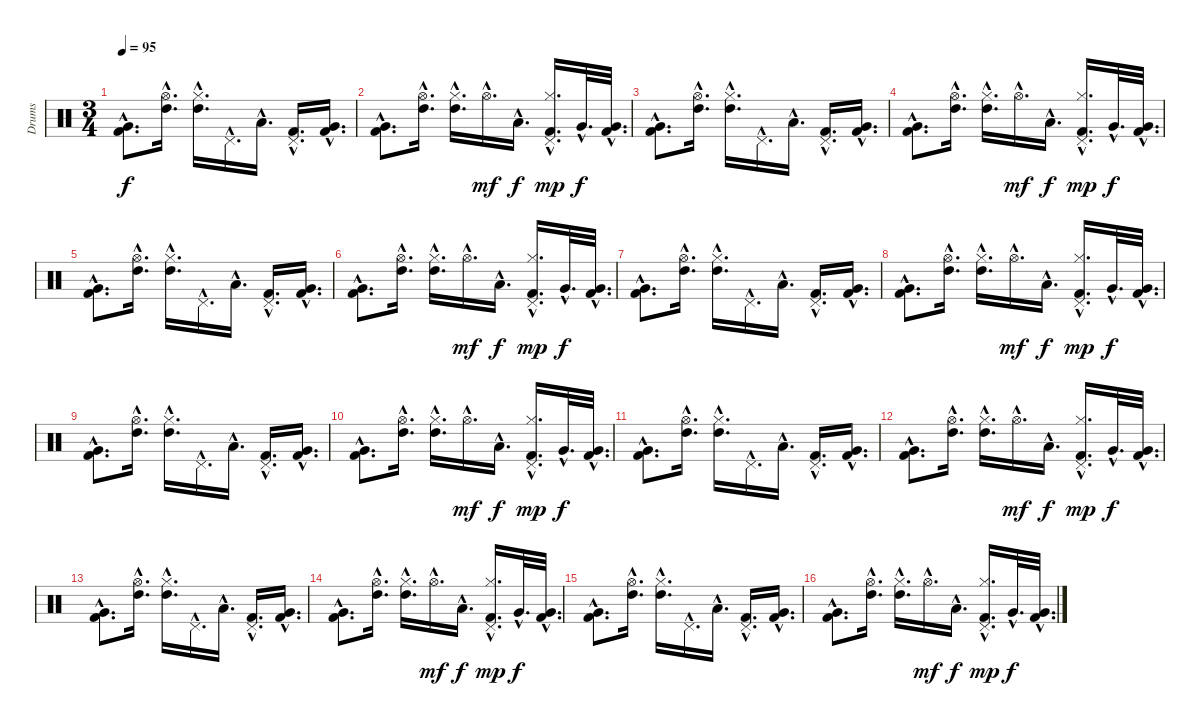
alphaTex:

\track ("Drums" "Drums") {instrument percussion}
\staff {score}
\articulation defaults
\ts (3 4)
\tempo 95
\clef neutral
\ks c
("Kick (hit) 2"{hac} "Very Low Tom (hit)"{hac}).8{d dy f} ("High Tom (hit)"{hac} "Hi-Hat (open)"{hac}).16{d} ("High Tom (hit)"{hac} "Hi-Hat (closed)"{hac}).16{d} "Pedal Hi-Hat (hit)"{hac}.16{d} "Low Tom (hit)"{hac}.16{d} ("Kick (hit) 2"{hac} "Pedal Hi-Hat (hit)"{hac}).16{d} ("Kick (hit) 2"{hac} "Very Low Tom (hit)"{hac}).16{d} |
("Kick (hit) 2"{hac} "Very Low Tom (hit)"{hac}).8{d} ("High Tom (hit)"{hac} "Hi-Hat (open)"{hac}).16{d} ("High Tom (hit)"{hac} "Hi-Hat (closed)"{hac}).16{d} "Hi-Hat (open)"{hac}.16{d dy mf} "Low Tom (hit)"{hac}.16{d dy f} ("Kick (hit) 2"{hac} "Pedal Hi-Hat (hit)"{hac} "Hi-Hat (closed)"{hac}).16{d dy mp} "Very Low Tom (hit)"{hac}.32{d dy f} ("Kick (hit) 2"{hac} "Very Low Tom (hit)"{hac}).32{d} |
("Kick (hit) 2"{hac} "Very Low Tom (hit)"{hac}).8{d} ("High Tom (hit)"{hac} "Hi-Hat (open)"{hac}).16{d} ("High Tom (hit)"{hac} "Hi-Hat (closed)"{hac}).16{d} "Pedal Hi-Hat (hit)"{hac}.16{d} "Low Tom (hit)"{hac}.16{d} ("Kick (hit) 2"{hac} "Pedal Hi-Hat (hit)"{hac}).16{d} ("Kick (hit) 2"{hac} "Very Low Tom (hit)"{hac}).16{d} |
("Kick (hit) 2"{hac} "Very Low Tom (hit)"{hac}).8{d} ("High Tom (hit)"{hac} "Hi-Hat (open)"{hac}).16{d} ("High Tom (hit)"{hac} "Hi-Hat (closed)"{hac}).16{d} "Hi-Hat (open)"{hac}.16{d dy mf} "Low Tom (hit)"{hac}.16{d dy f} ("Kick (hit) 2"{hac} "Pedal Hi-Hat (hit)"{hac} "Hi-Hat (closed)"{hac}).16{d dy mp} "Very Low Tom (hit)"{hac}.32{d dy f} ("Kick (hit) 2"{hac} "Very Low Tom (hit)"{hac}).32{d} |
("Kick (hit) 2"{hac} "Very Low Tom (hit)"{hac}).8{d} ("High Tom (hit)"{hac} "Hi-Hat (open)"{hac}).16{d} ("High Tom (hit)"{hac} "Hi-Hat (closed)"{hac}).16{d} "Pedal Hi-Hat (hit)"{hac}.16{d} "Low Tom (hit)"{hac}.16{d} ("Kick (hit) 2"{hac} "Pedal Hi-Hat (hit)"{hac}).16{d} ("Kick (hit) 2"{hac} "Very Low Tom (hit)"{hac}).16{d} |
("Kick (hit) 2"{hac} "Very Low Tom (hit)"{hac}).8{d} ("High Tom (hit)"{hac} "Hi-Hat (open)"{hac}).16{d} ("High Tom (hit)"{hac} "Hi-Hat (closed)"{hac}).16{d} "Hi-Hat (open)"{hac}.16{d dy mf} "Low Tom (hit)"{hac}.16{d dy f} ("Kick (hit) 2"{hac} "Pedal Hi-Hat (hit)"{hac} "Hi-Hat (closed)"{hac}).16{d dy mp} "Very Low Tom (hit)"{hac}.32{d dy f} ("Kick (hit) 2"{hac} "Very Low Tom (hit)"{hac}).32{d} |
("Kick (hit) 2"{hac} "Very Low Tom (hit)"{hac}).8{d} ("High Tom (hit)"{hac} "Hi-Hat (open)"{hac}).16{d} ("High Tom (hit)"{hac} "Hi-Hat (closed)"{hac}).16{d} "Pedal Hi-Hat (hit)"{hac}.16{d} "Low Tom (hit)"{hac}.16{d} ("Kick (hit) 2"{hac} "Pedal Hi-Hat (hit)"{hac}).16{d} ("Kick (hit) 2"{hac} "Very Low Tom (hit)"{hac}).16{d} |
("Kick (hit) 2"{hac} "Very Low Tom (hit)"{hac}).8{d} ("High Tom (hit)"{hac} "Hi-Hat (open)"{hac}).16{d} ("High Tom (hit)"{hac} "Hi-Hat (closed)"{hac}).16{d} "Hi-Hat (open)"{hac}.16{d dy mf} "Low Tom (hit)"{hac}.16{d dy f} ("Kick (hit) 2"{hac} "Pedal Hi-Hat (hit)"{hac} "Hi-Hat (closed)"{hac}).16{d dy mp} "Very Low Tom (hit)"{hac}.32{d dy f} ("Kick (hit) 2"{hac} "Very Low Tom (hit)"{hac}).32{d} |
("Kick (hit) 2"{hac} "Very Low Tom (hit)"{hac}).8{d} ("High Tom (hit)"{hac} "Hi-Hat (open)"{hac}).16{d} ("High Tom (hit)"{hac} "Hi-Hat (closed)"{hac}).16{d} "Pedal Hi-Hat (hit)"{hac}.16{d} "Low Tom (hit)"{hac}.16{d} ("Kick (hit) 2"{hac} "Pedal Hi-Hat (hit)"{hac}).16{d} ("Kick (hit) 2"{hac} "Very Low Tom (hit)"{hac}).16{d} |
("Kick (hit) 2"{hac} "Very Low Tom (hit)"{hac}).8{d} ("High Tom (hit)"{hac} "Hi-Hat (open)"{hac}).16{d} ("High Tom (hit)"{hac} "Hi-Hat (closed)"{hac}).16{d} "Hi-Hat (open)"{hac}.16{d dy mf} "Low Tom (hit)"{hac}.16{d dy f} ("Kick (hit) 2"{hac} "Pedal Hi-Hat (hit)"{hac} "Hi-Hat (closed)"{hac}).16{d dy mp} "Very Low Tom (hit)"{hac}.32{d dy f} ("Kick (hit) 2"{hac} "Very Low Tom (hit)"{hac}).32{d} |
("Kick (hit) 2"{hac} "Very Low Tom (hit)"{hac}).8{d} ("High Tom (hit)"{hac} "Hi-Hat (open)"{hac}).16{d} ("High Tom (hit)"{hac} "Hi-Hat (closed)"{hac}).16{d} "Pedal Hi-Hat (hit)"{hac}.16{d} "Low Tom (hit)"{hac}.16{d} ("Kick (hit) 2"{hac} "Pedal Hi-Hat (hit)"{hac}).16{d} ("Kick (hit) 2"{hac} "Very Low Tom (hit)"{hac}).16{d} |
("Kick (hit) 2"{hac} "Very Low Tom (hit)"{hac}).8{d} ("High Tom (hit)"{hac} "Hi-Hat (open)"{hac}).16{d} ("High Tom (hit)"{hac} "Hi-Hat (closed)"{hac}).16{d} "Hi-Hat (open)"{hac}.16{d dy mf} "Low Tom (hit)"{hac}.16{d dy f} ("Kick (hit) 2"{hac} "Pedal Hi-Hat (hit)"{hac} "Hi-Hat (closed)"{hac}).16{d dy mp} "Very Low Tom (hit)"{hac}.32{d dy f} ("Kick (hit) 2"{hac} "Very Low Tom (hit)"{hac}).32{d} |
("Kick (hit) 2"{hac} "Very Low Tom (hit)"{hac}).8{d} ("High Tom (hit)"{hac} "Hi-Hat (open)"{hac}).16{d} ("High Tom (hit)"{hac} "Hi-Hat (closed)"{hac}).16{d} "Pedal Hi-Hat (hit)"{hac}.16{d} "Low Tom (hit)"{hac}.16{d} ("Kick (hit) 2"{hac} "Pedal Hi-Hat (hit)"{hac}).16{d} ("Kick (hit) 2"{hac} "Very Low Tom (hit)"{hac}).16{d} |
("Kick (hit) 2"{hac} "Very Low Tom (hit)"{hac}).8{d} ("High Tom (hit)"{hac} "Hi-Hat (open)"{hac}).16{d} ("High Tom (hit)"{hac} "Hi-Hat (closed)"{hac}).16{d} "Hi-Hat (open)"{hac}.16{d dy mf} "Low Tom (hit)"{hac}.16{d dy f} ("Kick (hit) 2"{hac} "Pedal Hi-Hat (hit)"{hac} "Hi-Hat (closed)"{hac}).16{d dy mp} "Very Low Tom (hit)"{hac}.32{d dy f} ("Kick (hit) 2"{hac} "Very Low Tom (hit)"{hac}).32{d} |
("Kick (hit) 2"{hac} "Very Low Tom (hit)"{hac}).8{d} ("High Tom (hit)"{hac} "Hi-Hat (open)"{hac}).16{d} ("High Tom (hit)"{hac} "Hi-Hat (closed)"{hac}).16{d} "Pedal Hi-Hat (hit)"{hac}.16{d} "Low Tom (hit)"{hac}.16{d} ("Kick (hit) 2"{hac} "Pedal Hi-Hat (hit)"{hac}).16{d} ("Kick (hit) 2"{hac} "Very Low Tom (hit)"{hac}).16{d} |
("Kick (hit) 2"{hac} "Very Low Tom (hit)"{hac}).8{d} ("High Tom (hit)"{hac} "Hi-Hat (open)"{hac}).16{d} ("High Tom (hit)"{hac} "Hi-Hat (closed)"{hac}).16{d} "Hi-Hat (open)"{hac}.16{d dy mf} "Low Tom (hit)"{hac}.16{d dy f} ("Kick (hit) 2"{hac} "Pedal Hi-Hat (hit)"{hac} "Hi-Hat (closed)"{hac}).16{d dy mp} "Very Low Tom (hit)"{hac}.32{d dy f} ("Kick (hit) 2"{hac} "Very Low Tom (hit)"{hac}).32{d}
